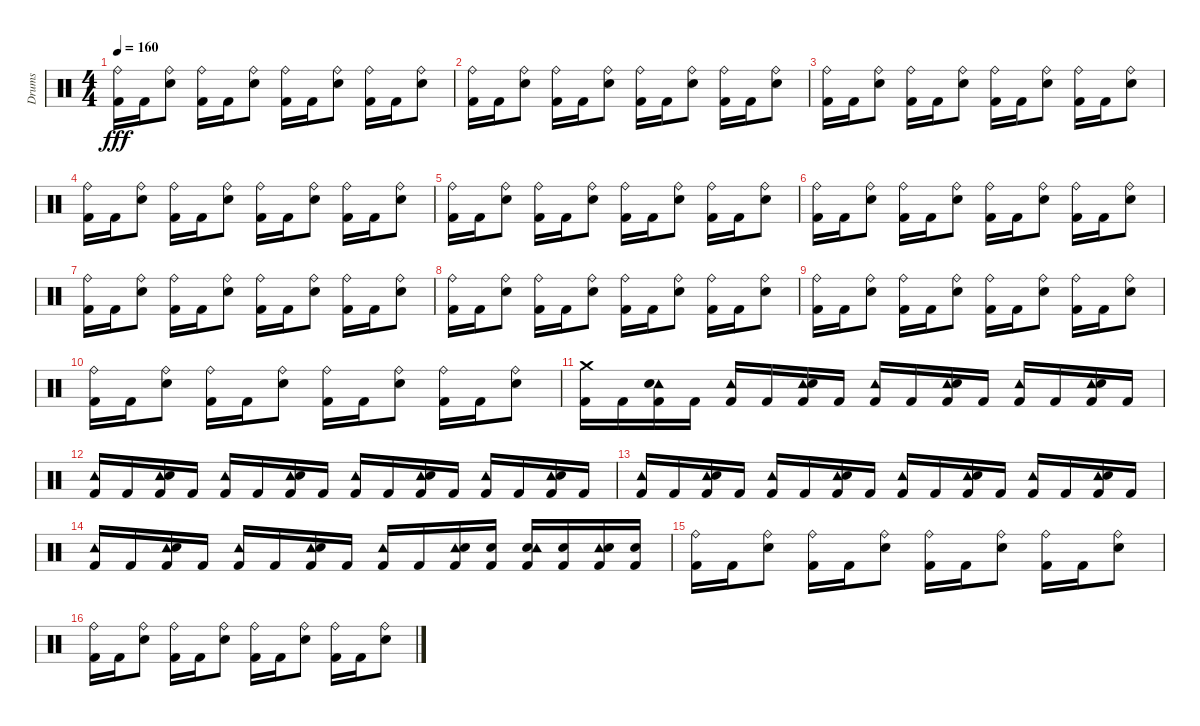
\track ("Drums" "Drums") {instrument percussion}
\staff {score}
\articulation defaults
\ts (4 4)
\tempo 160
\clef neutral
\ks c
("Kick (hit) 2" "Ride (bell)").16{dy fff} "Kick (hit) 2".16 ("Electric Snare (hit)" "Ride (bell)").8 ("Kick (hit) 2" "Ride (bell)").16 "Kick (hit) 2".16 ("Electric Snare (hit)" "Ride (bell)").8 ("Kick (hit) 2" "Ride (bell)").16 "Kick (hit) 2".16 ("Electric Snare (hit)" "Ride (bell)").8 ("Kick (hit) 2" "Ride (bell)").16 "Kick (hit) 2".16 ("Electric Snare (hit)" "Ride (bell)").8 |
("Kick (hit) 2" "Ride (bell)").16 "Kick (hit) 2".16 ("Electric Snare (hit)" "Ride (bell)").8 ("Kick (hit) 2" "Ride (bell)").16 "Kick (hit) 2".16 ("Electric Snare (hit)" "Ride (bell)").8 ("Kick (hit) 2" "Ride (bell)").16 "Kick (hit) 2".16 ("Electric Snare (hit)" "Ride (bell)").8 ("Kick (hit) 2" "Ride (bell)").16 "Kick (hit) 2".16 ("Electric Snare (hit)" "Ride (bell)").8 |
("Kick (hit) 2" "Ride (bell)").16 "Kick (hit) 2".16 ("Electric Snare (hit)" "Ride (bell)").8 ("Kick (hit) 2" "Ride (bell)").16 "Kick (hit) 2".16 ("Electric Snare (hit)" "Ride (bell)").8 ("Kick (hit) 2" "Ride (bell)").16 "Kick (hit) 2".16 ("Electric Snare (hit)" "Ride (bell)").8 ("Kick (hit) 2" "Ride (bell)").16 "Kick (hit) 2".16 ("Electric Snare (hit)" "Ride (bell)").8 |
("Kick (hit) 2" "Ride (bell)").16 "Kick (hit) 2".16 ("Electric Snare (hit)" "Ride (bell)").8 ("Kick (hit) 2" "Ride (bell)").16 "Kick (hit) 2".16 ("Electric Snare (hit)" "Ride (bell)").8 ("Kick (hit) 2" "Ride (bell)").16 "Kick (hit) 2".16 ("Electric Snare (hit)" "Ride (bell)").8 ("Kick (hit) 2" "Ride (bell)").16 "Kick (hit) 2".16 ("Electric Snare (hit)" "Ride (bell)").8 |
("Kick (hit) 2" "Ride (bell)").16 "Kick (hit) 2".16 ("Electric Snare (hit)" "Ride (bell)").8 ("Kick (hit) 2" "Ride (bell)").16 "Kick (hit) 2".16 ("Electric Snare (hit)" "Ride (bell)").8 ("Kick (hit) 2" "Ride (bell)").16 "Kick (hit) 2".16 ("Electric Snare (hit)" "Ride (bell)").8 ("Kick (hit) 2" "Ride (bell)").16 "Kick (hit) 2".16 ("Electric Snare (hit)" "Ride (bell)").8 |
("Kick (hit) 2" "Ride (bell)").16 "Kick (hit) 2".16 ("Electric Snare (hit)" "Ride (bell)").8 ("Kick (hit) 2" "Ride (bell)").16 "Kick (hit) 2".16 ("Electric Snare (hit)" "Ride (bell)").8 ("Kick (hit) 2" "Ride (bell)").16 "Kick (hit) 2".16 ("Electric Snare (hit)" "Ride (bell)").8 ("Kick (hit) 2" "Ride (bell)").16 "Kick (hit) 2".16 ("Electric Snare (hit)" "Ride (bell)").8 |
("Kick (hit) 2" "Ride (bell)").16 "Kick (hit) 2".16 ("Electric Snare (hit)" "Ride (bell)").8 ("Kick (hit) 2" "Ride (bell)").16 "Kick (hit) 2".16 ("Electric Snare (hit)" "Ride (bell)").8 ("Kick (hit) 2" "Ride (bell)").16 "Kick (hit) 2".16 ("Electric Snare (hit)" "Ride (bell)").8 ("Kick (hit) 2" "Ride (bell)").16 "Kick (hit) 2".16 ("Electric Snare (hit)" "Ride (bell)").8 |
("Kick (hit) 2" "Ride (bell)").16 "Kick (hit) 2".16 ("Electric Snare (hit)" "Ride (bell)").8 ("Kick (hit) 2" "Ride (bell)").16 "Kick (hit) 2".16 ("Electric Snare (hit)" "Ride (bell)").8 ("Kick (hit) 2" "Ride (bell)").16 "Kick (hit) 2".16 ("Electric Snare (hit)" "Ride (bell)").8 ("Kick (hit) 2" "Ride (bell)").16 "Kick (hit) 2".16 ("Electric Snare (hit)" "Ride (bell)").8 |
("Kick (hit) 2" "Ride (bell)").16 "Kick (hit) 2".16 ("Electric Snare (hit)" "Ride (bell)").8 ("Kick (hit) 2" "Ride (bell)").16 "Kick (hit) 2".16 ("Electric Snare (hit)" "Ride (bell)").8 ("Kick (hit) 2" "Ride (bell)").16 "Kick (hit) 2".16 ("Electric Snare (hit)" "Ride (bell)").8 ("Kick (hit) 2" "Ride (bell)").16 "Kick (hit) 2".16 ("Electric Snare (hit)" "Ride (bell)").8 |
("Kick (hit) 2" "Ride (bell)").16 "Kick (hit) 2".16 ("Electric Snare (hit)" "Ride (bell)").8 ("Kick (hit) 2" "Ride (bell)").16 "Kick (hit) 2".16 ("Electric Snare (hit)" "Ride (bell)").8 ("Kick (hit) 2" "Ride (bell)").16 "Kick (hit) 2".16 ("Electric Snare (hit)" "Ride (bell)").8 ("Kick (hit) 2" "Ride (bell)").16 "Kick (hit) 2".16 ("Electric Snare (hit)" "Ride (bell)").8 |
("Crash medium (hit)" "Kick (hit) 2").16 "Kick (hit) 2".16 ("Kick (hit) 2" "Tambourine (hit)" "Electric Snare (hit)").16 "Kick (hit) 2".16 ("Tambourine (hit)" "Kick (hit) 2").16 "Kick (hit) 2".16 ("Kick (hit) 2" "Tambourine (hit)" "Electric Snare (hit)").16 "Kick (hit) 2".16 ("Tambourine (hit)" "Kick (hit) 2").16 "Kick (hit) 2".16 ("Kick (hit) 2" "Tambourine (hit)" "Electric Snare (hit)").16 "Kick (hit) 2".16 ("Tambourine (hit)" "Kick (hit) 2").16 "Kick (hit) 2".16 ("Kick (hit) 2" "Tambourine (hit)" "Electric Snare (hit)").16 "Kick (hit) 2".16 |
("Tambourine (hit)" "Kick (hit) 2").16 "Kick (hit) 2".16 ("Kick (hit) 2" "Tambourine (hit)" "Electric Snare (hit)").16 "Kick (hit) 2".16 ("Tambourine (hit)" "Kick (hit) 2").16 "Kick (hit) 2".16 ("Kick (hit) 2" "Tambourine (hit)" "Electric Snare (hit)").16 "Kick (hit) 2".16 ("Tambourine (hit)" "Kick (hit) 2").16 "Kick (hit) 2".16 ("Kick (hit) 2" "Tambourine (hit)" "Electric Snare (hit)").16 "Kick (hit) 2".16 ("Tambourine (hit)" "Kick (hit) 2").16 "Kick (hit) 2".16 ("Kick (hit) 2" "Tambourine (hit)" "Electric Snare (hit)").16 "Kick (hit) 2".16 |
("Tambourine (hit)" "Kick (hit) 2").16 "Kick (hit) 2".16 ("Kick (hit) 2" "Tambourine (hit)" "Electric Snare (hit)").16 "Kick (hit) 2".16 ("Tambourine (hit)" "Kick (hit) 2").16 "Kick (hit) 2".16 ("Kick (hit) 2" "Tambourine (hit)" "Electric Snare (hit)").16 "Kick (hit) 2".16 ("Tambourine (hit)" "Kick (hit) 2").16 "Kick (hit) 2".16 ("Kick (hit) 2" "Tambourine (hit)" "Electric Snare (hit)").16 "Kick (hit) 2".16 ("Tambourine (hit)" "Kick (hit) 2").16 "Kick (hit) 2".16 ("Kick (hit) 2" "Tambourine (hit)" "Electric Snare (hit)").16 "Kick (hit) 2".16 |
("Tambourine (hit)" "Kick (hit) 2").16 "Kick (hit) 2".16 ("Kick (hit) 2" "Tambourine (hit)" "Electric Snare (hit)").16 "Kick (hit) 2".16 ("Tambourine (hit)" "Kick (hit) 2").16 "Kick (hit) 2".16 ("Kick (hit) 2" "Tambourine (hit)" "Electric Snare (hit)").16 "Kick (hit) 2".16 ("Tambourine (hit)" "Kick (hit) 2").16 "Kick (hit) 2".16 ("Kick (hit) 2" "Tambourine (hit)" "Electric Snare (hit)").16 ("Electric Snare (hit)" "Kick (hit) 2").16 ("Electric Snare (hit)" "Tambourine (hit)" "Kick (hit) 2").16 ("Electric Snare (hit)" "Kick (hit) 2").16 ("Kick (hit) 2" "Tambourine (hit)" "Electric Snare (hit)").16 ("Electric Snare (hit)" "Kick (hit) 2").16 |
("Kick (hit) 2" "Ride (bell)").16 "Kick (hit) 2".16 ("Electric Snare (hit)" "Ride (bell)").8 ("Kick (hit) 2" "Ride (bell)").16 "Kick (hit) 2".16 ("Electric Snare (hit)" "Ride (bell)").8 ("Kick (hit) 2" "Ride (bell)").16 "Kick (hit) 2".16 ("Electric Snare (hit)" "Ride (bell)").8 ("Kick (hit) 2" "Ride (bell)").16 "Kick (hit) 2".16 ("Electric Snare (hit)" "Ride (bell)").8 |
("Kick (hit) 2" "Ride (bell)").16 "Kick (hit) 2".16 ("Electric Snare (hit)" "Ride (bell)").8 ("Kick (hit) 2" "Ride (bell)").16 "Kick (hit) 2".16 ("Electric Snare (hit)" "Ride (bell)").8 ("Kick (hit) 2" "Ride (bell)").16 "Kick (hit) 2".16 ("Electric Snare (hit)" "Ride (bell)").8 ("Kick (hit) 2" "Ride (bell)").16 "Kick (hit) 2".16 ("Electric Snare (hit)" "Ride (bell)").8
